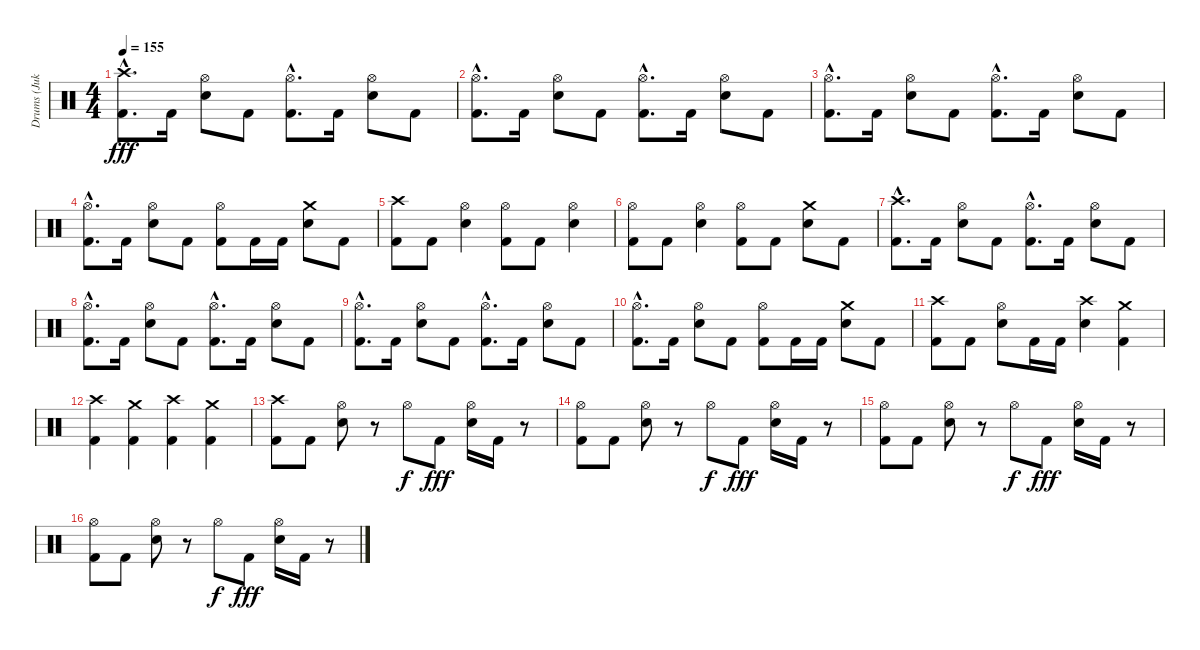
\track ("Drums (Jukka)" "Drums (Juk") {instrument percussion}
\staff {score}
\articulation defaults
\ts (4 4)
\tempo 155
\clef neutral
\ks c
("Kick (hit) 2"{hac} "Crash high (hit)"{hac}).8{d dy fff} "Kick (hit) 2".16 ("Snare (hit) 2" "Hi-Hat (open)").8 "Kick (hit) 2".8 ("Kick (hit) 2"{hac} "Hi-Hat (open)"{hac}).8{d} "Kick (hit) 2".16 ("Snare (hit) 2" "Hi-Hat (open)").8 "Kick (hit) 2".8 |
("Kick (hit) 2"{hac} "Hi-Hat (open)"{hac}).8{d} "Kick (hit) 2".16 ("Snare (hit) 2" "Hi-Hat (open)").8 "Kick (hit) 2".8 ("Kick (hit) 2"{hac} "Hi-Hat (open)"{hac}).8{d} "Kick (hit) 2".16 ("Snare (hit) 2" "Hi-Hat (open)").8 "Kick (hit) 2".8 |
("Kick (hit) 2"{hac} "Hi-Hat (open)"{hac}).8{d} "Kick (hit) 2".16 ("Snare (hit) 2" "Hi-Hat (open)").8 "Kick (hit) 2".8 ("Kick (hit) 2"{hac} "Hi-Hat (open)"{hac}).8{d} "Kick (hit) 2".16 ("Snare (hit) 2" "Hi-Hat (open)").8 "Kick (hit) 2".8 |
("Kick (hit) 2"{hac} "Hi-Hat (open)"{hac}).8{d} "Kick (hit) 2".16 ("Snare (hit) 2" "Hi-Hat (open)").8 "Kick (hit) 2".8 ("Kick (hit) 2" "Hi-Hat (open)").8 "Kick (hit) 2".16 "Kick (hit) 2".16 ("Snare (hit) 2" "Crash medium (hit)").8 "Kick (hit) 2".8 |
("Kick (hit) 2" "Crash high (hit)").8 "Kick (hit) 2".8 ("Snare (hit) 2" "Hi-Hat (open)").4 ("Kick (hit) 2" "Hi-Hat (open)").8 "Kick (hit) 2".8 ("Snare (hit) 2" "Hi-Hat (open)").4 |
("Kick (hit) 2" "Hi-Hat (open)").8 "Kick (hit) 2".8 ("Snare (hit) 2" "Hi-Hat (open)").4 ("Kick (hit) 2" "Hi-Hat (open)").8 "Kick (hit) 2".8 ("Snare (hit) 2" "Crash medium (hit)").8 "Kick (hit) 2".8 |
("Kick (hit) 2"{hac} "Crash high (hit)"{hac}).8{d} "Kick (hit) 2".16 ("Snare (hit) 2" "Hi-Hat (open)").8 "Kick (hit) 2".8 ("Kick (hit) 2"{hac} "Hi-Hat (open)"{hac}).8{d} "Kick (hit) 2".16 ("Snare (hit) 2" "Hi-Hat (open)").8 "Kick (hit) 2".8 |
("Kick (hit) 2"{hac} "Hi-Hat (open)"{hac}).8{d} "Kick (hit) 2".16 ("Snare (hit) 2" "Hi-Hat (open)").8 "Kick (hit) 2".8 ("Kick (hit) 2"{hac} "Hi-Hat (open)"{hac}).8{d} "Kick (hit) 2".16 ("Snare (hit) 2" "Hi-Hat (open)").8 "Kick (hit) 2".8 |
("Kick (hit) 2"{hac} "Hi-Hat (open)"{hac}).8{d} "Kick (hit) 2".16 ("Snare (hit) 2" "Hi-Hat (open)").8 "Kick (hit) 2".8 ("Kick (hit) 2"{hac} "Hi-Hat (open)"{hac}).8{d} "Kick (hit) 2".16 ("Snare (hit) 2" "Hi-Hat (open)").8 "Kick (hit) 2".8 |
("Kick (hit) 2"{hac} "Hi-Hat (open)"{hac}).8{d} "Kick (hit) 2".16 ("Snare (hit) 2" "Hi-Hat (open)").8 "Kick (hit) 2".8 ("Kick (hit) 2" "Hi-Hat (open)").8 "Kick (hit) 2".16 "Kick (hit) 2".16 ("Snare (hit) 2" "Crash medium (hit)").8 "Kick (hit) 2".8 |
("Kick (hit) 2" "Crash high (hit)").8 "Kick (hit) 2".8 ("Snare (hit) 2" "Hi-Hat (open)").8 "Kick (hit) 2".16 "Kick (hit) 2".16 ("Snare (hit) 2" "Crash high (hit)").4 ("Kick (hit) 2" "Crash medium (hit)").4 |
("Kick (hit) 2" "Crash high (hit)").4 ("Kick (hit) 2" "Crash medium (hit)").4 ("Kick (hit) 2" "Crash high (hit)").4 ("Kick (hit) 2" "Crash medium (hit)").4 |
("Kick (hit) 2" "Crash high (hit)").8 "Kick (hit) 2".8 ("Snare (hit) 2" "Hi-Hat (open)").8 r.8 "Hi-Hat (open)".8{dy f} "Kick (hit) 2".8{dy fff} ("Snare (hit) 2" "Hi-Hat (open)").16 "Kick (hit) 2".16 r.8 |
("Kick (hit) 2" "Hi-Hat (open)").8 "Kick (hit) 2".8 ("Snare (hit) 2" "Hi-Hat (open)").8 r.8 "Hi-Hat (open)".8{dy f} "Kick (hit) 2".8{dy fff} ("Snare (hit) 2" "Hi-Hat (open)").16 "Kick (hit) 2".16 r.8 |
("Kick (hit) 2" "Hi-Hat (open)").8 "Kick (hit) 2".8 ("Snare (hit) 2" "Hi-Hat (open)").8 r.8 "Hi-Hat (open)".8{dy f} "Kick (hit) 2".8{dy fff} ("Snare (hit) 2" "Hi-Hat (open)").16 "Kick (hit) 2".16 r.8 |
("Kick (hit) 2" "Hi-Hat (open)").8 "Kick (hit) 2".8 ("Snare (hit) 2" "Hi-Hat (open)").8 r.8 "Hi-Hat (open)".8{dy f} "Kick (hit) 2".8{dy fff} ("Snare (hit) 2" "Hi-Hat (open)").16 "Kick (hit) 2".16 r.8
